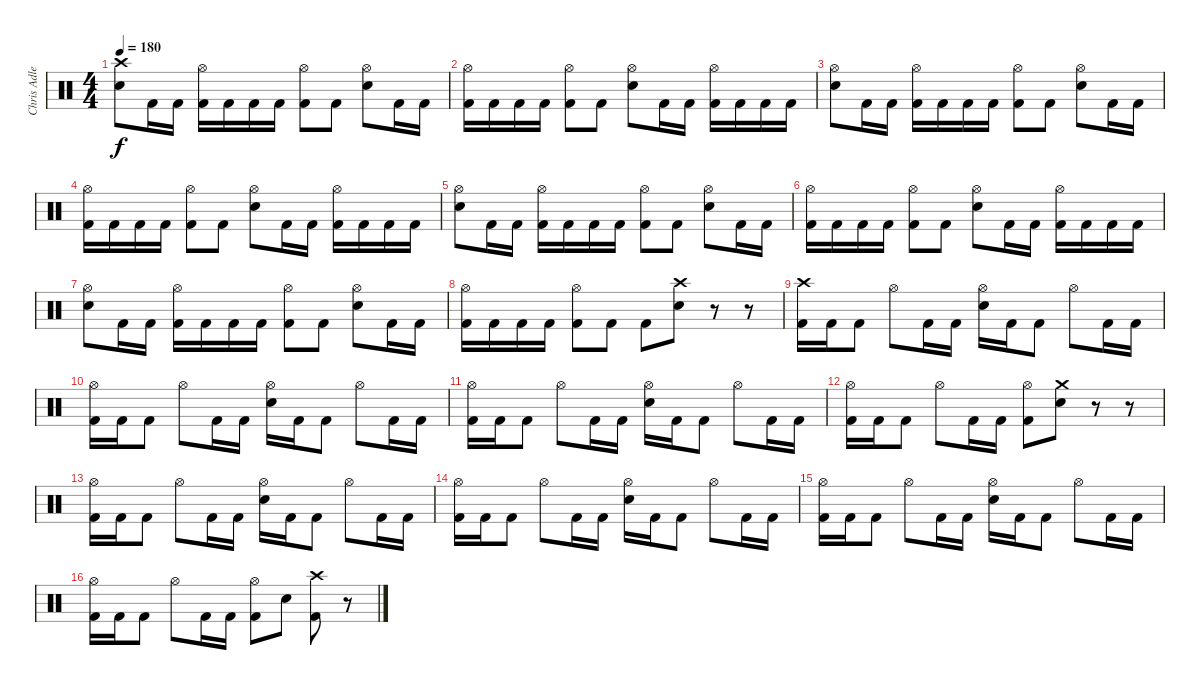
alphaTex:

\track ("Chris Adler - Drums" "Chris Adle") {instrument percussion}
\staff {score}
\articulation defaults
\ts (4 4)
\tempo 180
\clef neutral
\ks c
("Crash high (hit)" "Snare (hit) 2").8{dy f} "Kick (hit) 2".16 "Kick (hit) 2".16 ("Hi-Hat (open)" "Kick (hit) 2").16 "Kick (hit) 2".16 "Kick (hit) 2".16 "Kick (hit) 2".16 ("Hi-Hat (open)" "Kick (hit) 2").8 "Kick (hit) 2".8 ("Hi-Hat (open)" "Snare (hit) 2").8 "Kick (hit) 2".16 "Kick (hit) 2".16 |
("Hi-Hat (open)" "Kick (hit) 2").16 "Kick (hit) 2".16 "Kick (hit) 2".16 "Kick (hit) 2".16 ("Hi-Hat (open)" "Kick (hit) 2").8 "Kick (hit) 2".8 ("Hi-Hat (open)" "Snare (hit) 2").8 "Kick (hit) 2".16 "Kick (hit) 2".16 ("Hi-Hat (open)" "Kick (hit) 2").16 "Kick (hit) 2".16 "Kick (hit) 2".16 "Kick (hit) 2".16 |
("Hi-Hat (open)" "Snare (hit) 2").8 "Kick (hit) 2".16 "Kick (hit) 2".16 ("Hi-Hat (open)" "Kick (hit) 2").16 "Kick (hit) 2".16 "Kick (hit) 2".16 "Kick (hit) 2".16 ("Hi-Hat (open)" "Kick (hit) 2").8 "Kick (hit) 2".8 ("Hi-Hat (open)" "Snare (hit) 2").8 "Kick (hit) 2".16 "Kick (hit) 2".16 |
("Hi-Hat (open)" "Kick (hit) 2").16 "Kick (hit) 2".16 "Kick (hit) 2".16 "Kick (hit) 2".16 ("Hi-Hat (open)" "Kick (hit) 2").8 "Kick (hit) 2".8 ("Hi-Hat (open)" "Snare (hit) 2").8 "Kick (hit) 2".16 "Kick (hit) 2".16 ("Hi-Hat (open)" "Kick (hit) 2").16 "Kick (hit) 2".16 "Kick (hit) 2".16 "Kick (hit) 2".16 |
("Hi-Hat (open)" "Snare (hit) 2").8 "Kick (hit) 2".16 "Kick (hit) 2".16 ("Hi-Hat (open)" "Kick (hit) 2").16 "Kick (hit) 2".16 "Kick (hit) 2".16 "Kick (hit) 2".16 ("Hi-Hat (open)" "Kick (hit) 2").8 "Kick (hit) 2".8 ("Hi-Hat (open)" "Snare (hit) 2").8 "Kick (hit) 2".16 "Kick (hit) 2".16 |
("Hi-Hat (open)" "Kick (hit) 2").16 "Kick (hit) 2".16 "Kick (hit) 2".16 "Kick (hit) 2".16 ("Hi-Hat (open)" "Kick (hit) 2").8 "Kick (hit) 2".8 ("Hi-Hat (open)" "Snare (hit) 2").8 "Kick (hit) 2".16 "Kick (hit) 2".16 ("Hi-Hat (open)" "Kick (hit) 2").16 "Kick (hit) 2".16 "Kick (hit) 2".16 "Kick (hit) 2".16 |
("Hi-Hat (open)" "Snare (hit) 2").8 "Kick (hit) 2".16 "Kick (hit) 2".16 ("Hi-Hat (open)" "Kick (hit) 2").16 "Kick (hit) 2".16 "Kick (hit) 2".16 "Kick (hit) 2".16 ("Hi-Hat (open)" "Kick (hit) 2").8 "Kick (hit) 2".8 ("Hi-Hat (open)" "Snare (hit) 2").8 "Kick (hit) 2".16 "Kick (hit) 2".16 |
("Hi-Hat (open)" "Kick (hit) 2").16 "Kick (hit) 2".16 "Kick (hit) 2".16 "Kick (hit) 2".16 ("Hi-Hat (open)" "Kick (hit) 2").8 "Kick (hit) 2".8 "Kick (hit) 2".8 ("Crash high (hit)" "Snare (hit) 2").8 r.8 r.8 |
("Crash high (hit)" "Kick (hit) 2").16 "Kick (hit) 2".16 "Kick (hit) 2".8 "Hi-Hat (open)".8 "Kick (hit) 2".16 "Kick (hit) 2".16 ("Hi-Hat (open)" "Snare (hit) 2").16 "Kick (hit) 2".16 "Kick (hit) 2".8 "Hi-Hat (open)".8 "Kick (hit) 2".16 "Kick (hit) 2".16 |
("Hi-Hat (open)" "Kick (hit) 2").16 "Kick (hit) 2".16 "Kick (hit) 2".8 "Hi-Hat (open)".8 "Kick (hit) 2".16 "Kick (hit) 2".16 ("Hi-Hat (open)" "Snare (hit) 2").16 "Kick (hit) 2".16 "Kick (hit) 2".8 "Hi-Hat (open)".8 "Kick (hit) 2".16 "Kick (hit) 2".16 |
("Hi-Hat (open)" "Kick (hit) 2").16 "Kick (hit) 2".16 "Kick (hit) 2".8 "Hi-Hat (open)".8 "Kick (hit) 2".16 "Kick (hit) 2".16 ("Hi-Hat (open)" "Snare (hit) 2").16 "Kick (hit) 2".16 "Kick (hit) 2".8 "Hi-Hat (open)".8 "Kick (hit) 2".16 "Kick (hit) 2".16 |
("Hi-Hat (open)" "Kick (hit) 2").16 "Kick (hit) 2".16 "Kick (hit) 2".8 "Hi-Hat (open)".8 "Kick (hit) 2".16 "Kick (hit) 2".16 ("Hi-Hat (open)" "Kick (hit) 2").8 ("Crash medium (hit)" "Snare (hit) 2").8 r.8 r.8 |
("Hi-Hat (open)" "Kick (hit) 2").16 "Kick (hit) 2".16 "Kick (hit) 2".8 "Hi-Hat (open)".8 "Kick (hit) 2".16 "Kick (hit) 2".16 ("Hi-Hat (open)" "Snare (hit) 2").16 "Kick (hit) 2".16 "Kick (hit) 2".8 "Hi-Hat (open)".8 "Kick (hit) 2".16 "Kick (hit) 2".16 |
("Hi-Hat (open)" "Kick (hit) 2").16 "Kick (hit) 2".16 "Kick (hit) 2".8 "Hi-Hat (open)".8 "Kick (hit) 2".16 "Kick (hit) 2".16 ("Hi-Hat (open)" "Snare (hit) 2").16 "Kick (hit) 2".16 "Kick (hit) 2".8 "Hi-Hat (open)".8 "Kick (hit) 2".16 "Kick (hit) 2".16 |
("Hi-Hat (open)" "Kick (hit) 2").16 "Kick (hit) 2".16 "Kick (hit) 2".8 "Hi-Hat (open)".8 "Kick (hit) 2".16 "Kick (hit) 2".16 ("Hi-Hat (open)" "Snare (hit) 2").16 "Kick (hit) 2".16 "Kick (hit) 2".8 "Hi-Hat (open)".8 "Kick (hit) 2".16 "Kick (hit) 2".16 |
("Hi-Hat (open)" "Kick (hit) 2").16 "Kick (hit) 2".16 "Kick (hit) 2".8 "Hi-Hat (open)".8 "Kick (hit) 2".16 "Kick (hit) 2".16 ("Hi-Hat (open)" "Kick (hit) 2").8 "Snare (hit) 2".8 ("Crash high (hit)" "Kick (hit) 2").8 r.8
